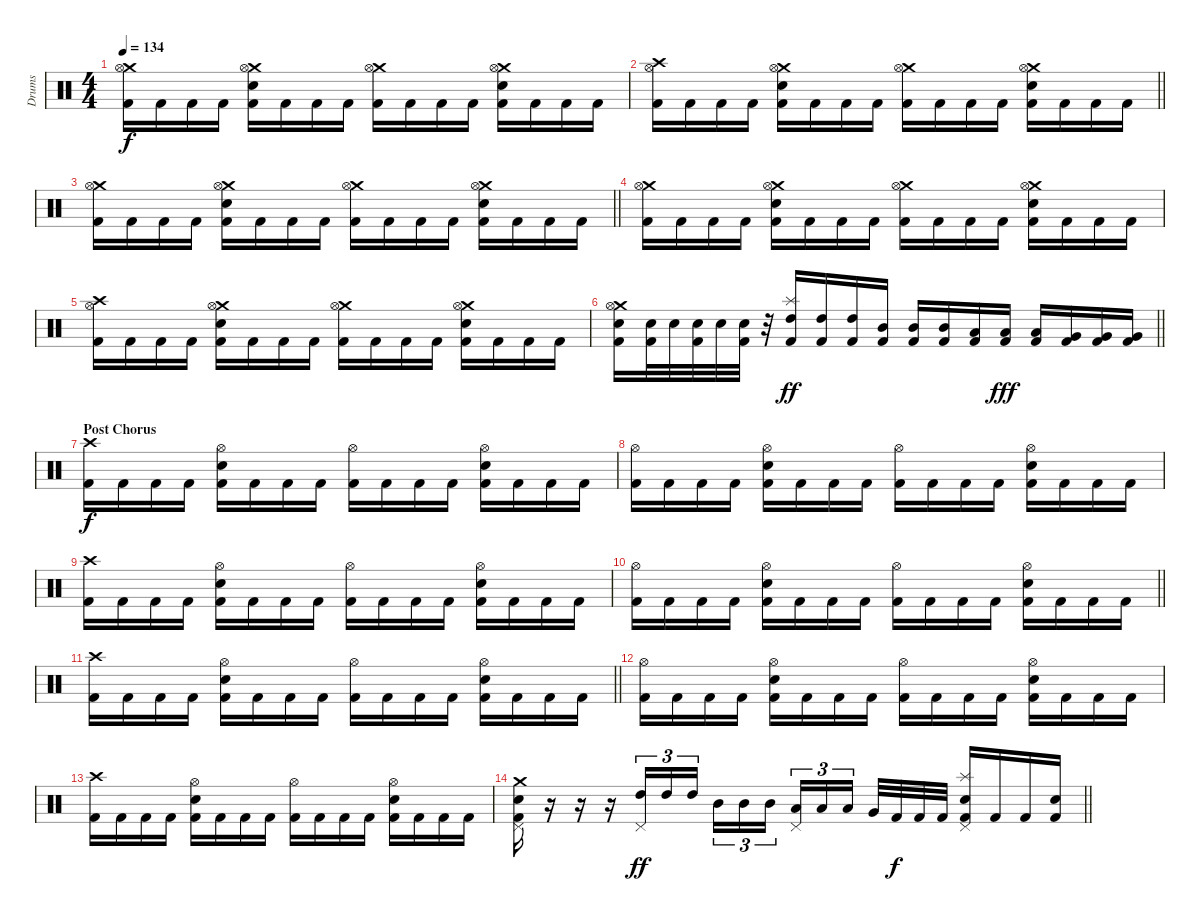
\track ("Drums" "Drums") {instrument percussion}
\staff {score}
\articulation defaults
\ts (4 4)
\tempo 134
\clef neutral
\ks c
("Crash medium (hit)" "Hi-Hat (open)" "Kick (hit) 2").16{dy f} "Kick (hit) 2".16 "Kick (hit) 2".16 "Kick (hit) 2".16 ("Crash medium (hit)" "Hi-Hat (open)" "Snare (hit) 2" "Kick (hit) 2").16 "Kick (hit) 2".16 "Kick (hit) 2".16 "Kick (hit) 2".16 ("Crash medium (hit)" "Hi-Hat (open)" "Kick (hit) 2").16 "Kick (hit) 2".16 "Kick (hit) 2".16 "Kick (hit) 2".16 ("Crash medium (hit)" "Hi-Hat (open)" "Snare (hit) 2" "Kick (hit) 2").16 "Kick (hit) 2".16 "Kick (hit) 2".16 "Kick (hit) 2".16 |
\barLineRight lightlight
("Crash high (hit)" "Hi-Hat (open)" "Kick (hit) 2").16 "Kick (hit) 2".16 "Kick (hit) 2".16 "Kick (hit) 2".16 ("Crash medium (hit)" "Hi-Hat (open)" "Snare (hit) 2" "Kick (hit) 2").16 "Kick (hit) 2".16 "Kick (hit) 2".16 "Kick (hit) 2".16 ("Crash medium (hit)" "Hi-Hat (open)" "Kick (hit) 2").16 "Kick (hit) 2".16 "Kick (hit) 2".16 "Kick (hit) 2".16 ("Crash medium (hit)" "Hi-Hat (open)" "Snare (hit) 2" "Kick (hit) 2").16 "Kick (hit) 2".16 "Kick (hit) 2".16 "Kick (hit) 2".16 |
\section ("" "")
\barLineRight lightlight
("Crash medium (hit)" "Hi-Hat (open)" "Kick (hit) 2").16 "Kick (hit) 2".16 "Kick (hit) 2".16 "Kick (hit) 2".16 ("Crash medium (hit)" "Hi-Hat (open)" "Snare (hit) 2" "Kick (hit) 2").16 "Kick (hit) 2".16 "Kick (hit) 2".16 "Kick (hit) 2".16 ("Crash medium (hit)" "Hi-Hat (open)" "Kick (hit) 2").16 "Kick (hit) 2".16 "Kick (hit) 2".16 "Kick (hit) 2".16 ("Crash medium (hit)" "Hi-Hat (open)" "Snare (hit) 2" "Kick (hit) 2").16 "Kick (hit) 2".16 "Kick (hit) 2".16 "Kick (hit) 2".16 |
("Crash medium (hit)" "Hi-Hat (open)" "Kick (hit) 2").16 "Kick (hit) 2".16 "Kick (hit) 2".16 "Kick (hit) 2".16 ("Crash medium (hit)" "Hi-Hat (open)" "Snare (hit) 2" "Kick (hit) 2").16 "Kick (hit) 2".16 "Kick (hit) 2".16 "Kick (hit) 2".16 ("Crash medium (hit)" "Hi-Hat (open)" "Kick (hit) 2").16 "Kick (hit) 2".16 "Kick (hit) 2".16 "Kick (hit) 2".16 ("Crash medium (hit)" "Hi-Hat (open)" "Snare (hit) 2" "Kick (hit) 2").16 "Kick (hit) 2".16 "Kick (hit) 2".16 "Kick (hit) 2".16 |
("Crash high (hit)" "Hi-Hat (open)" "Kick (hit) 2").16 "Kick (hit) 2".16 "Kick (hit) 2".16 "Kick (hit) 2".16 ("Crash medium (hit)" "Hi-Hat (open)" "Snare (hit) 2" "Kick (hit) 2").16 "Kick (hit) 2".16 "Kick (hit) 2".16 "Kick (hit) 2".16 ("Crash medium (hit)" "Hi-Hat (open)" "Kick (hit) 2").16 "Kick (hit) 2".16 "Kick (hit) 2".16 "Kick (hit) 2".16 ("Crash medium (hit)" "Hi-Hat (open)" "Snare (hit) 2" "Kick (hit) 2").16 "Kick (hit) 2".16 "Kick (hit) 2".16 "Kick (hit) 2".16 |
\barLineRight lightlight
("Crash medium (hit)" "Hi-Hat (open)" "Snare (hit) 2" "Kick (hit) 2").16 ("Electric Snare (hit)" "Kick (hit) 2").32 "Electric Snare (hit)".32 ("Electric Snare (hit)" "Kick (hit) 2").32 "Electric Snare (hit)".32 ("Electric Snare (hit)" "Kick (hit) 2").32 r.32 ("Splash (hit)" "High Tom (hit)" "Kick (hit) 2").16{dy ff} ("High Tom (hit)" "Kick (hit) 2").16 ("High Tom (hit)" "Kick (hit) 2").16 ("Mid Tom (hit)" "Kick (hit) 2").16 ("Mid Tom (hit)" "Kick (hit) 2").16 ("Mid Tom (hit)" "Kick (hit) 2").16 ("Low Tom (hit)" "Kick (hit) 2").16 ("Low Tom (hit)" "Kick (hit) 2").16{dy fff} ("Low Tom (hit)" "Kick (hit) 2").16 ("Very Low Tom (hit)" "Kick (hit) 2").16 ("Very Low Tom (hit)" "Kick (hit) 2").16 ("Very Low Tom (hit)" "Kick (hit) 2").16 |
\section ("" "Post Chorus")
("Crash high (hit)" "Kick (hit) 2").16{dy f} "Kick (hit) 2".16 "Kick (hit) 2".16 "Kick (hit) 2".16 ("Hi-Hat (open)" "Snare (hit) 2" "Kick (hit) 2").16 "Kick (hit) 2".16 "Kick (hit) 2".16 "Kick (hit) 2".16 ("Hi-Hat (open)" "Kick (hit) 2").16 "Kick (hit) 2".16 "Kick (hit) 2".16 "Kick (hit) 2".16 ("Hi-Hat (open)" "Snare (hit) 2" "Kick (hit) 2").16 "Kick (hit) 2".16 "Kick (hit) 2".16 "Kick (hit) 2".16 |
("Hi-Hat (open)" "Kick (hit) 2").16 "Kick (hit) 2".16 "Kick (hit) 2".16 "Kick (hit) 2".16 ("Hi-Hat (open)" "Snare (hit) 2" "Kick (hit) 2").16 "Kick (hit) 2".16 "Kick (hit) 2".16 "Kick (hit) 2".16 ("Hi-Hat (open)" "Kick (hit) 2").16 "Kick (hit) 2".16 "Kick (hit) 2".16 "Kick (hit) 2".16 ("Hi-Hat (open)" "Snare (hit) 2" "Kick (hit) 2").16 "Kick (hit) 2".16 "Kick (hit) 2".16 "Kick (hit) 2".16 |
("Crash high (hit)" "Kick (hit) 2").16 "Kick (hit) 2".16 "Kick (hit) 2".16 "Kick (hit) 2".16 ("Hi-Hat (open)" "Snare (hit) 2" "Kick (hit) 2").16 "Kick (hit) 2".16 "Kick (hit) 2".16 "Kick (hit) 2".16 ("Hi-Hat (open)" "Kick (hit) 2").16 "Kick (hit) 2".16 "Kick (hit) 2".16 "Kick (hit) 2".16 ("Hi-Hat (open)" "Snare (hit) 2" "Kick (hit) 2").16 "Kick (hit) 2".16 "Kick (hit) 2".16 "Kick (hit) 2".16 |
\barLineRight lightlight
("Hi-Hat (open)" "Kick (hit) 2").16 "Kick (hit) 2".16 "Kick (hit) 2".16 "Kick (hit) 2".16 ("Hi-Hat (open)" "Snare (hit) 2" "Kick (hit) 2").16 "Kick (hit) 2".16 "Kick (hit) 2".16 "Kick (hit) 2".16 ("Hi-Hat (open)" "Kick (hit) 2").16 "Kick (hit) 2".16 "Kick (hit) 2".16 "Kick (hit) 2".16 ("Hi-Hat (open)" "Snare (hit) 2" "Kick (hit) 2").16 "Kick (hit) 2".16 "Kick (hit) 2".16 "Kick (hit) 2".16 |
\section ("" "")
\barLineRight lightlight
("Crash high (hit)" "Kick (hit) 2").16 "Kick (hit) 2".16 "Kick (hit) 2".16 "Kick (hit) 2".16 ("Hi-Hat (open)" "Snare (hit) 2" "Kick (hit) 2").16 "Kick (hit) 2".16 "Kick (hit) 2".16 "Kick (hit) 2".16 ("Hi-Hat (open)" "Kick (hit) 2").16 "Kick (hit) 2".16 "Kick (hit) 2".16 "Kick (hit) 2".16 ("Hi-Hat (open)" "Snare (hit) 2" "Kick (hit) 2").16 "Kick (hit) 2".16 "Kick (hit) 2".16 "Kick (hit) 2".16 |
("Hi-Hat (open)" "Kick (hit) 2").16 "Kick (hit) 2".16 "Kick (hit) 2".16 "Kick (hit) 2".16 ("Hi-Hat (open)" "Snare (hit) 2" "Kick (hit) 2").16 "Kick (hit) 2".16 "Kick (hit) 2".16 "Kick (hit) 2".16 ("Hi-Hat (open)" "Kick (hit) 2").16 "Kick (hit) 2".16 "Kick (hit) 2".16 "Kick (hit) 2".16 ("Hi-Hat (open)" "Snare (hit) 2" "Kick (hit) 2").16 "Kick (hit) 2".16 "Kick (hit) 2".16 "Kick (hit) 2".16 |
("Crash high (hit)" "Kick (hit) 2").16 "Kick (hit) 2".16 "Kick (hit) 2".16 "Kick (hit) 2".16 ("Hi-Hat (open)" "Snare (hit) 2" "Kick (hit) 2").16 "Kick (hit) 2".16 "Kick (hit) 2".16 "Kick (hit) 2".16 ("Hi-Hat (open)" "Kick (hit) 2").16 "Kick (hit) 2".16 "Kick (hit) 2".16 "Kick (hit) 2".16 ("Hi-Hat (open)" "Snare (hit) 2" "Kick (hit) 2").16 "Kick (hit) 2".16 "Kick (hit) 2".16 "Kick (hit) 2".16 |
\barLineRight lightlight
("Crash medium (hit)" "Pedal Hi-Hat (hit)" "Snare (hit) 2" "Kick (hit) 2").16 r.16 r.16 r.16 ("High Tom (hit)" "Pedal Hi-Hat (hit)").16{tu (3 2) dy ff} "High Tom (hit)".16{tu (3 2)} "High Tom (hit)".16{tu (3 2)} "Mid Tom (hit)".16{tu (3 2)} "Mid Tom (hit)".16{tu (3 2)} "Mid Tom (hit)".16{tu (3 2)} ("Low Tom (hit)" "Pedal Hi-Hat (hit)").16{tu (3 2)} "Low Tom (hit)".16{tu (3 2)} "Low Tom (hit)".16{tu (3 2)} "Very Low Tom (hit)".32 "Kick (hit) 2".32{dy f} "Kick (hit) 2".32 "Kick (hit) 2".32 ("Splash (hit)" "Pedal Hi-Hat (hit)" "Snare (hit) 2" "Kick (hit) 2").16 "Kick (hit) 2".16 "Kick (hit) 2".16 ("Snare (hit) 2" "Kick (hit) 2").16
